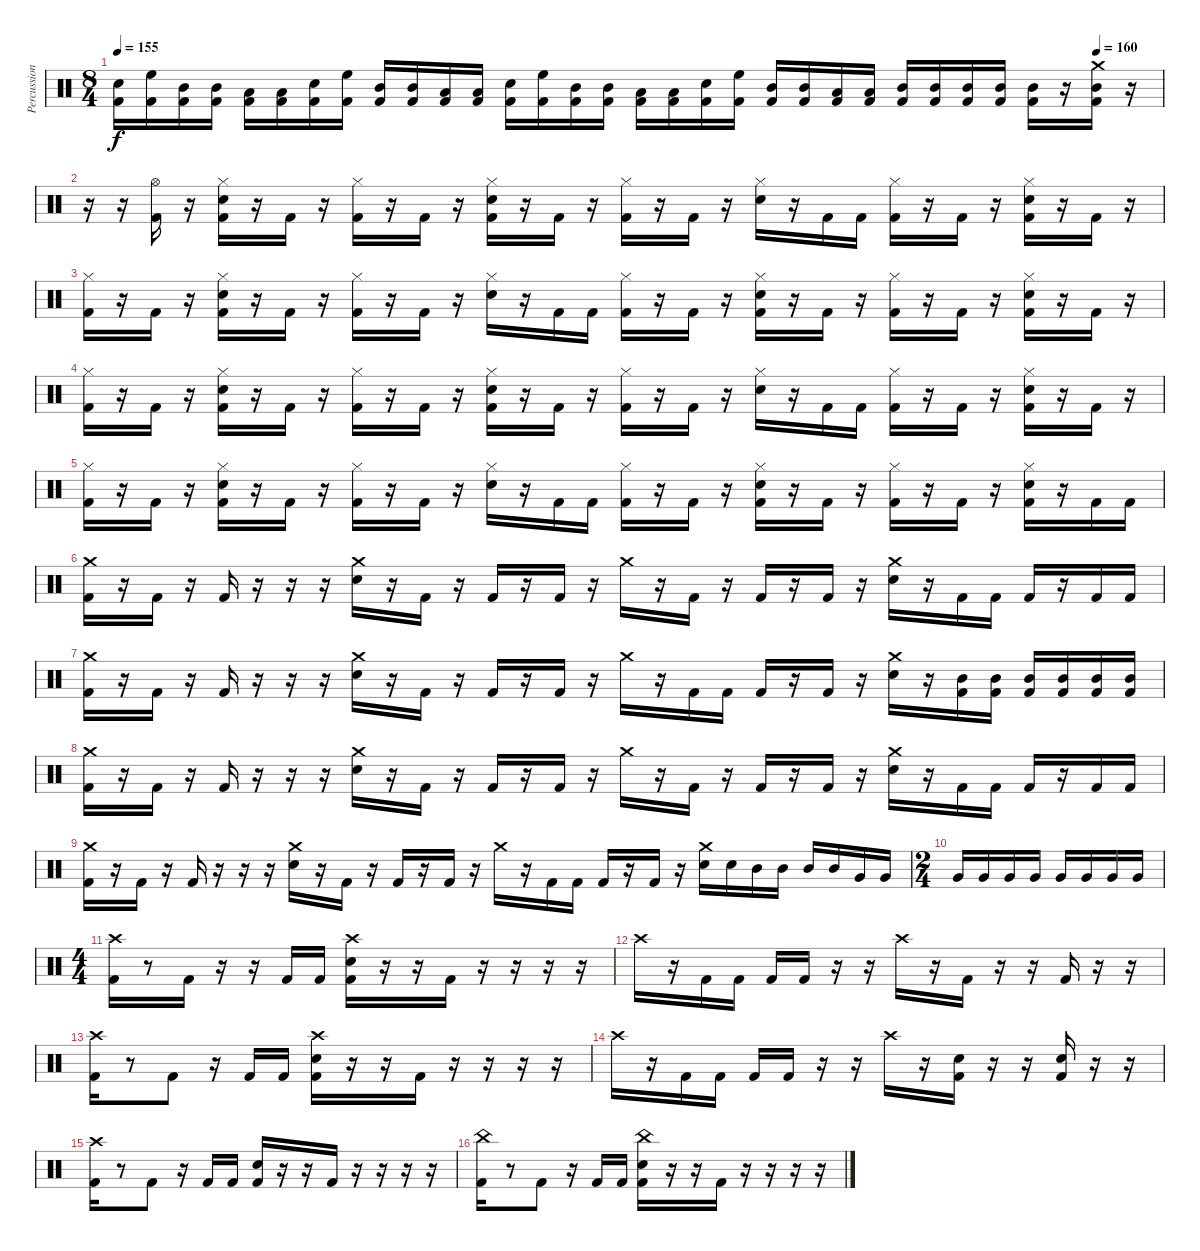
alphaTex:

\track ("Percussion" "Percussion") {instrument percussion}
\staff {score}
\articulation defaults
\ts (8 4)
\tempo 155
\tempo (160 0.9375)
\clef neutral
\ks c
("Electric Snare (hit)" "Kick (hit) 2").16{dy f} ("High Floor Tom (hit)" "Kick (hit) 2").16 ("Mid Tom (hit)" "Kick (hit) 2").16 ("Mid Tom (hit)" "Kick (hit) 2").16 ("Low Tom (hit)" "Kick (hit) 2").16 ("Low Tom (hit)" "Kick (hit) 2").16 ("Electric Snare (hit)" "Kick (hit) 2").16 ("High Floor Tom (hit)" "Kick (hit) 2").16 ("Mid Tom (hit)" "Kick (hit) 2").16 ("Mid Tom (hit)" "Kick (hit) 2").16 ("Low Tom (hit)" "Kick (hit) 2").16 ("Low Tom (hit)" "Kick (hit) 2").16 ("Electric Snare (hit)" "Kick (hit) 2").16 ("High Floor Tom (hit)" "Kick (hit) 2").16 ("Mid Tom (hit)" "Kick (hit) 2").16 ("Mid Tom (hit)" "Kick (hit) 2").16 ("Low Tom (hit)" "Kick (hit) 2").16 ("Low Tom (hit)" "Kick (hit) 2").16 ("Electric Snare (hit)" "Kick (hit) 2").16 ("High Floor Tom (hit)" "Kick (hit) 2").16 ("Mid Tom (hit)" "Kick (hit) 2").16 ("Mid Tom (hit)" "Kick (hit) 2").16 ("Low Tom (hit)" "Kick (hit) 2").16 ("Low Tom (hit)" "Kick (hit) 2").16 ("Mid Tom (hit)" "Kick (hit) 2").16 ("Mid Tom (hit)" "Kick (hit) 2").16 ("Mid Tom (hit)" "Kick (hit) 2").16 ("Mid Tom (hit)" "Kick (hit) 2").16 ("Mid Tom (hit)" "Kick (hit) 2").16 r.16 ("Crash medium (hit)" "Mid Tom (hit)" "Kick (hit) 2").16 r.16 |
r.16 r.16 ("Hi-Hat (open)" "Kick (hit) 2").16 r.16 ("Hi-Hat (closed)" "Electric Snare (hit)" "Kick (hit) 2").16 r.16 "Kick (hit) 2".16 r.16 ("Hi-Hat (closed)" "Kick (hit) 2").16 r.16 "Kick (hit) 2".16 r.16 ("Hi-Hat (closed)" "Electric Snare (hit)" "Kick (hit) 2").16 r.16 "Kick (hit) 2".16 r.16 ("Hi-Hat (closed)" "Kick (hit) 2").16 r.16 "Kick (hit) 2".16 r.16 ("Hi-Hat (closed)" "Electric Snare (hit)").16 r.16 "Kick (hit) 2".16 "Kick (hit) 2".16 ("Hi-Hat (closed)" "Kick (hit) 2").16 r.16 "Kick (hit) 2".16 r.16 ("Hi-Hat (closed)" "Electric Snare (hit)" "Kick (hit) 2").16 r.16 "Kick (hit) 2".16 r.16 |
("Hi-Hat (closed)" "Kick (hit) 2").16 r.16 "Kick (hit) 2".16 r.16 ("Hi-Hat (closed)" "Electric Snare (hit)" "Kick (hit) 2").16 r.16 "Kick (hit) 2".16 r.16 ("Hi-Hat (closed)" "Kick (hit) 2").16 r.16 "Kick (hit) 2".16 r.16 ("Hi-Hat (closed)" "Electric Snare (hit)").16 r.16 "Kick (hit) 2".16 "Kick (hit) 2".16 ("Hi-Hat (closed)" "Kick (hit) 2").16 r.16 "Kick (hit) 2".16 r.16 ("Hi-Hat (closed)" "Electric Snare (hit)" "Kick (hit) 2").16 r.16 "Kick (hit) 2".16 r.16 ("Hi-Hat (closed)" "Kick (hit) 2").16 r.16 "Kick (hit) 2".16 r.16 ("Hi-Hat (closed)" "Electric Snare (hit)" "Kick (hit) 2").16 r.16 "Kick (hit) 2".16 r.16 |
("Hi-Hat (closed)" "Kick (hit) 2").16 r.16 "Kick (hit) 2".16 r.16 ("Hi-Hat (closed)" "Electric Snare (hit)" "Kick (hit) 2").16 r.16 "Kick (hit) 2".16 r.16 ("Hi-Hat (closed)" "Kick (hit) 2").16 r.16 "Kick (hit) 2".16 r.16 ("Hi-Hat (closed)" "Electric Snare (hit)" "Kick (hit) 2").16 r.16 "Kick (hit) 2".16 r.16 ("Hi-Hat (closed)" "Kick (hit) 2").16 r.16 "Kick (hit) 2".16 r.16 ("Hi-Hat (closed)" "Electric Snare (hit)").16 r.16 "Kick (hit) 2".16 "Kick (hit) 2".16 ("Hi-Hat (closed)" "Kick (hit) 2").16 r.16 "Kick (hit) 2".16 r.16 ("Hi-Hat (closed)" "Electric Snare (hit)" "Kick (hit) 2").16 r.16 "Kick (hit) 2".16 r.16 |
("Hi-Hat (closed)" "Kick (hit) 2").16 r.16 "Kick (hit) 2".16 r.16 ("Hi-Hat (closed)" "Electric Snare (hit)" "Kick (hit) 2").16 r.16 "Kick (hit) 2".16 r.16 ("Hi-Hat (closed)" "Kick (hit) 2").16 r.16 "Kick (hit) 2".16 r.16 ("Hi-Hat (closed)" "Electric Snare (hit)").16 r.16 "Kick (hit) 2".16 "Kick (hit) 2".16 ("Hi-Hat (closed)" "Kick (hit) 2").16 r.16 "Kick (hit) 2".16 r.16 ("Hi-Hat (closed)" "Electric Snare (hit)" "Kick (hit) 2").16 r.16 "Kick (hit) 2".16 r.16 ("Hi-Hat (closed)" "Kick (hit) 2").16 r.16 "Kick (hit) 2".16 r.16 ("Hi-Hat (closed)" "Electric Snare (hit)" "Kick (hit) 2").16 r.16 "Kick (hit) 2".16 "Kick (hit) 2".16 |
("Crash medium (hit)" "Kick (hit) 2").16 r.16 "Kick (hit) 2".16 r.16 "Kick (hit) 2".16 r.16 r.16 r.16 ("Crash medium (hit)" "Electric Snare (hit)").16 r.16 "Kick (hit) 2".16 r.16 "Kick (hit) 2".16 r.16 "Kick (hit) 2".16 r.16 "Crash medium (hit)".16 r.16 "Kick (hit) 2".16 r.16 "Kick (hit) 2".16 r.16 "Kick (hit) 2".16 r.16 ("Crash medium (hit)" "Electric Snare (hit)").16 r.16 "Kick (hit) 2".16 "Kick (hit) 2".16 "Kick (hit) 2".16 r.16 "Kick (hit) 2".16 "Kick (hit) 2".16 |
("Crash medium (hit)" "Kick (hit) 2").16 r.16 "Kick (hit) 2".16 r.16 "Kick (hit) 2".16 r.16 r.16 r.16 ("Crash medium (hit)" "Electric Snare (hit)").16 r.16 "Kick (hit) 2".16 r.16 "Kick (hit) 2".16 r.16 "Kick (hit) 2".16 r.16 "Crash medium (hit)".16 r.16 "Kick (hit) 2".16 "Kick (hit) 2".16 "Kick (hit) 2".16 r.16 "Kick (hit) 2".16 r.16 ("Crash medium (hit)" "Electric Snare (hit)").16 r.16 ("Mid Tom (hit)" "Kick (hit) 2").16 ("Mid Tom (hit)" "Kick (hit) 2").16 ("Mid Tom (hit)" "Kick (hit) 2").16 ("Mid Tom (hit)" "Kick (hit) 2").16 ("Mid Tom (hit)" "Kick (hit) 2").16 ("Mid Tom (hit)" "Kick (hit) 2").16 |
("Crash medium (hit)" "Kick (hit) 2").16 r.16 "Kick (hit) 2".16 r.16 "Kick (hit) 2".16 r.16 r.16 r.16 ("Crash medium (hit)" "Electric Snare (hit)").16 r.16 "Kick (hit) 2".16 r.16 "Kick (hit) 2".16 r.16 "Kick (hit) 2".16 r.16 "Crash medium (hit)".16 r.16 "Kick (hit) 2".16 r.16 "Kick (hit) 2".16 r.16 "Kick (hit) 2".16 r.16 ("Crash medium (hit)" "Electric Snare (hit)").16 r.16 "Kick (hit) 2".16 "Kick (hit) 2".16 "Kick (hit) 2".16 r.16 "Kick (hit) 2".16 "Kick (hit) 2".16 |
("Crash medium (hit)" "Kick (hit) 2").16 r.16 "Kick (hit) 2".16 r.16 "Kick (hit) 2".16 r.16 r.16 r.16 ("Crash medium (hit)" "Electric Snare (hit)").16 r.16 "Kick (hit) 2".16 r.16 "Kick (hit) 2".16 r.16 "Kick (hit) 2".16 r.16 "Crash medium (hit)".16 r.16 "Kick (hit) 2".16 "Kick (hit) 2".16 "Kick (hit) 2".16 r.16 "Kick (hit) 2".16 r.16 ("Crash medium (hit)" "Electric Snare (hit)").16 "Electric Snare (hit)".16 "Mid Tom (hit)".16 "Mid Tom (hit)".16 "Mid Tom (hit)".16 "Mid Tom (hit)".16 "Very Low Tom (hit)".16 "Very Low Tom (hit)".16 |
\ts (2 4)
"Very Low Tom (hit)".16 "Very Low Tom (hit)".16 "Very Low Tom (hit)".16 "Very Low Tom (hit)".16 "Very Low Tom (hit)".16 "Very Low Tom (hit)".16 "Very Low Tom (hit)".16 "Very Low Tom (hit)".16 |
\ts (4 4)
("Crash high (hit)" "Kick (hit) 2").16 r.8 "Kick (hit) 2".16 r.16 r.16 "Kick (hit) 2".16 "Kick (hit) 2".16 ("Crash high (hit)" "Electric Snare (hit)" "Kick (hit) 2").16 r.16 r.16 "Kick (hit) 2".16 r.16 r.16 r.16 r.16 |
"Crash high (hit)".16 r.16 "Kick (hit) 2".16 "Kick (hit) 2".16 "Kick (hit) 2".16 "Kick (hit) 2".16 r.16 r.16 "Crash high (hit)".16 r.16 "Kick (hit) 2".16 r.16 r.16 "Kick (hit) 2".16 r.16 r.16 |
("Crash high (hit)" "Kick (hit) 2").16 r.8 "Kick (hit) 2".8 r.16 "Kick (hit) 2".16 "Kick (hit) 2".16 ("Crash high (hit)" "Electric Snare (hit)" "Kick (hit) 2").16 r.16 r.16 "Kick (hit) 2".16 r.16 r.16 r.16 r.16 |
"Crash high (hit)".16 r.16 "Kick (hit) 2".16 "Kick (hit) 2".16 "Kick (hit) 2".16 "Kick (hit) 2".16 r.16 r.16 "Crash high (hit)".16 r.16 ("Electric Snare (hit)" "Kick (hit) 2").16 r.16 r.16 ("Electric Snare (hit)" "Kick (hit) 2").16 r.16 r.16 |
("Crash high (hit)" "Kick (hit) 2").16 r.8 "Kick (hit) 2".8 r.16 "Kick (hit) 2".16 "Kick (hit) 2".16 ("Electric Snare (hit)" "Kick (hit) 2").16 r.16 r.16 "Kick (hit) 2".16 r.16 r.16 r.16 r.16 |
("China (hit)" "Kick (hit) 2").16 r.8 "Kick (hit) 2".8 r.16 "Kick (hit) 2".16 "Kick (hit) 2".16 ("China (hit)" "Electric Snare (hit)" "Kick (hit) 2").16 r.16 r.16 "Kick (hit) 2".16 r.16 r.16 r.16 r.16
